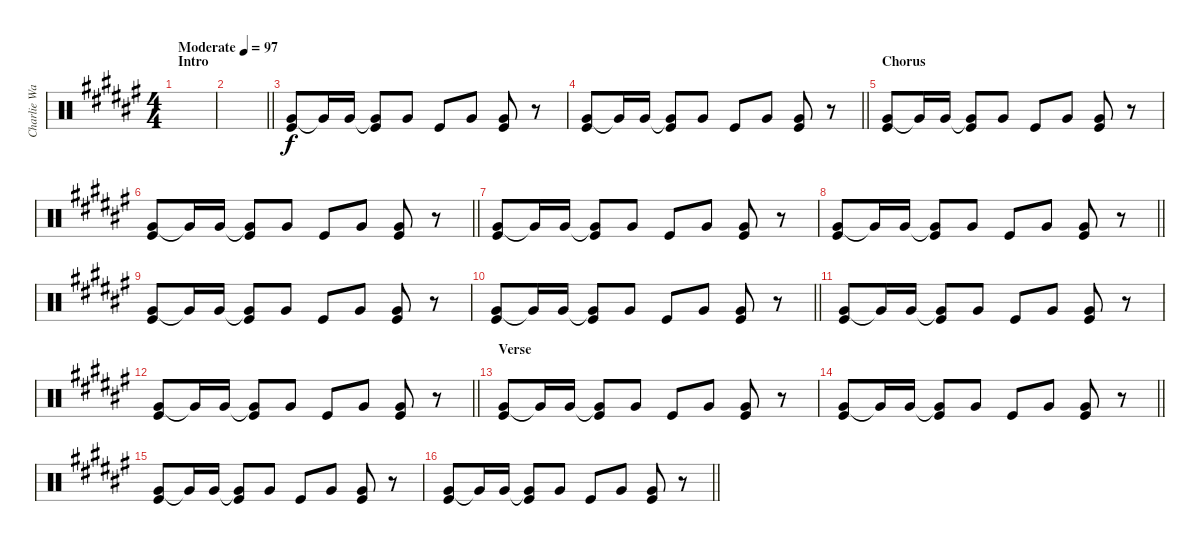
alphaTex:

\track ("Charlie Watts" "Charlie Wa") {instrument percussion}
\staff {score}
\articulation defaults
\ts (4 4)
\section ("" "Intro")
\tempo (97 "Moderate")
\clef neutral
\ks f#
|
\barLineRight lightlight
|
("Very Low Tom (hit)" "Kick (hit)").8 "Very Low Tom (hit)"{t}.16 "Very Low Tom (hit)".16 ("Very Low Tom (hit)"{t} "Kick (hit)").8 "Very Low Tom (hit)".8 "Kick (hit)".8 "Very Low Tom (hit)".8 ("Very Low Tom (hit)" "Kick (hit)").8 r.8 |
\barLineRight lightlight
("Very Low Tom (hit)" "Kick (hit)").8 "Very Low Tom (hit)"{t}.16 "Very Low Tom (hit)".16 ("Very Low Tom (hit)"{t} "Kick (hit)").8 "Very Low Tom (hit)".8 "Kick (hit)".8 "Very Low Tom (hit)".8 ("Very Low Tom (hit)" "Kick (hit)").8 r.8 |
\section ("" "Chorus")
("Very Low Tom (hit)" "Kick (hit)").8 "Very Low Tom (hit)"{t}.16 "Very Low Tom (hit)".16 ("Very Low Tom (hit)"{t} "Kick (hit)").8 "Very Low Tom (hit)".8 "Kick (hit)".8 "Very Low Tom (hit)".8 ("Very Low Tom (hit)" "Kick (hit)").8 r.8 |
\barLineRight lightlight
("Very Low Tom (hit)" "Kick (hit)").8 "Very Low Tom (hit)"{t}.16 "Very Low Tom (hit)".16 ("Very Low Tom (hit)"{t} "Kick (hit)").8 "Very Low Tom (hit)".8 "Kick (hit)".8 "Very Low Tom (hit)".8 ("Very Low Tom (hit)" "Kick (hit)").8 r.8 |
("Very Low Tom (hit)" "Kick (hit)").8 "Very Low Tom (hit)"{t}.16 "Very Low Tom (hit)".16 ("Very Low Tom (hit)"{t} "Kick (hit)").8 "Very Low Tom (hit)".8 "Kick (hit)".8 "Very Low Tom (hit)".8 ("Very Low Tom (hit)" "Kick (hit)").8 r.8 |
\barLineRight lightlight
("Very Low Tom (hit)" "Kick (hit)").8 "Very Low Tom (hit)"{t}.16 "Very Low Tom (hit)".16 ("Very Low Tom (hit)"{t} "Kick (hit)").8 "Very Low Tom (hit)".8 "Kick (hit)".8 "Very Low Tom (hit)".8 ("Very Low Tom (hit)" "Kick (hit)").8 r.8 |
("Very Low Tom (hit)" "Kick (hit)").8 "Very Low Tom (hit)"{t}.16 "Very Low Tom (hit)".16 ("Very Low Tom (hit)"{t} "Kick (hit)").8 "Very Low Tom (hit)".8 "Kick (hit)".8 "Very Low Tom (hit)".8 ("Very Low Tom (hit)" "Kick (hit)").8 r.8 |
\barLineRight lightlight
("Very Low Tom (hit)" "Kick (hit)").8 "Very Low Tom (hit)"{t}.16 "Very Low Tom (hit)".16 ("Very Low Tom (hit)"{t} "Kick (hit)").8 "Very Low Tom (hit)".8 "Kick (hit)".8 "Very Low Tom (hit)".8 ("Very Low Tom (hit)" "Kick (hit)").8 r.8 |
("Very Low Tom (hit)" "Kick (hit)").8 "Very Low Tom (hit)"{t}.16 "Very Low Tom (hit)".16 ("Very Low Tom (hit)"{t} "Kick (hit)").8 "Very Low Tom (hit)".8 "Kick (hit)".8 "Very Low Tom (hit)".8 ("Very Low Tom (hit)" "Kick (hit)").8 r.8 |
\barLineRight lightlight
("Very Low Tom (hit)" "Kick (hit)").8 "Very Low Tom (hit)"{t}.16 "Very Low Tom (hit)".16 ("Very Low Tom (hit)"{t} "Kick (hit)").8 "Very Low Tom (hit)".8 "Kick (hit)".8 "Very Low Tom (hit)".8 ("Very Low Tom (hit)" "Kick (hit)").8 r.8 |
\section ("" "Verse")
("Very Low Tom (hit)" "Kick (hit)").8 "Very Low Tom (hit)"{t}.16 "Very Low Tom (hit)".16 ("Very Low Tom (hit)"{t} "Kick (hit)").8 "Very Low Tom (hit)".8 "Kick (hit)".8 "Very Low Tom (hit)".8 ("Very Low Tom (hit)" "Kick (hit)").8 r.8 |
\barLineRight lightlight
("Very Low Tom (hit)" "Kick (hit)").8 "Very Low Tom (hit)"{t}.16 "Very Low Tom (hit)".16 ("Very Low Tom (hit)"{t} "Kick (hit)").8 "Very Low Tom (hit)".8 "Kick (hit)".8 "Very Low Tom (hit)".8 ("Very Low Tom (hit)" "Kick (hit)").8 r.8 |
("Very Low Tom (hit)" "Kick (hit)").8 "Very Low Tom (hit)"{t}.16 "Very Low Tom (hit)".16 ("Very Low Tom (hit)"{t} "Kick (hit)").8 "Very Low Tom (hit)".8 "Kick (hit)".8 "Very Low Tom (hit)".8 ("Very Low Tom (hit)" "Kick (hit)").8 r.8 |
\barLineRight lightlight
("Very Low Tom (hit)" "Kick (hit)").8 "Very Low Tom (hit)"{t}.16 "Very Low Tom (hit)".16 ("Very Low Tom (hit)"{t} "Kick (hit)").8 "Very Low Tom (hit)".8 "Kick (hit)".8 "Very Low Tom (hit)".8 ("Very Low Tom (hit)" "Kick (hit)").8 r.8
